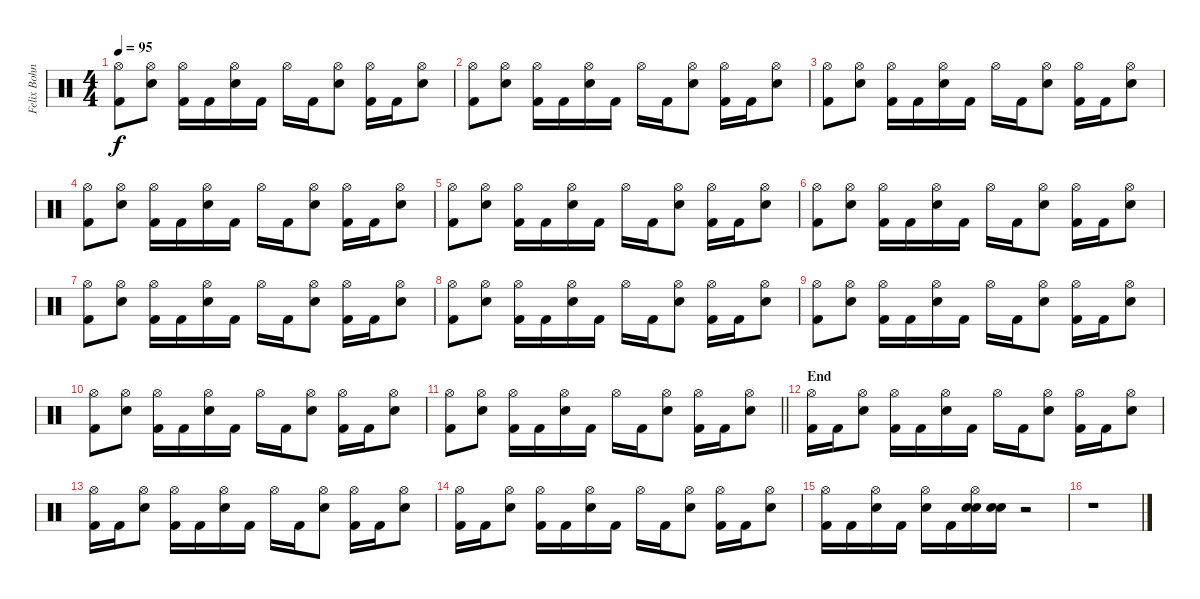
\track ("Felix Bohnke" "Felix Bohn") {instrument percussion}
\staff {score}
\articulation defaults
\ts (4 4)
\tempo 95
\clef neutral
\ks c
("Hi-Hat (open)" "Kick (hit) 2").8{dy f} ("Hi-Hat (open)" "Snare (hit) 2").8 ("Hi-Hat (open)" "Kick (hit) 2").16 "Kick (hit) 2".16 ("Hi-Hat (open)" "Snare (hit) 2").16 "Kick (hit) 2".16 "Hi-Hat (open)".16 "Kick (hit) 2".16 ("Hi-Hat (open)" "Snare (hit) 2").8 ("Hi-Hat (open)" "Kick (hit) 2").16 "Kick (hit) 2".16 ("Hi-Hat (open)" "Snare (hit) 2").8 |
("Hi-Hat (open)" "Kick (hit) 2").8 ("Hi-Hat (open)" "Snare (hit) 2").8 ("Hi-Hat (open)" "Kick (hit) 2").16 "Kick (hit) 2".16 ("Hi-Hat (open)" "Snare (hit) 2").16 "Kick (hit) 2".16 "Hi-Hat (open)".16 "Kick (hit) 2".16 ("Hi-Hat (open)" "Snare (hit) 2").8 ("Hi-Hat (open)" "Kick (hit) 2").16 "Kick (hit) 2".16 ("Hi-Hat (open)" "Snare (hit) 2").8 |
("Hi-Hat (open)" "Kick (hit) 2").8 ("Hi-Hat (open)" "Snare (hit) 2").8 ("Hi-Hat (open)" "Kick (hit) 2").16 "Kick (hit) 2".16 ("Hi-Hat (open)" "Snare (hit) 2").16 "Kick (hit) 2".16 "Hi-Hat (open)".16 "Kick (hit) 2".16 ("Hi-Hat (open)" "Snare (hit) 2").8 ("Hi-Hat (open)" "Kick (hit) 2").16 "Kick (hit) 2".16 ("Hi-Hat (open)" "Snare (hit) 2").8 |
("Hi-Hat (open)" "Kick (hit) 2").8 ("Hi-Hat (open)" "Snare (hit) 2").8 ("Hi-Hat (open)" "Kick (hit) 2").16 "Kick (hit) 2".16 ("Hi-Hat (open)" "Snare (hit) 2").16 "Kick (hit) 2".16 "Hi-Hat (open)".16 "Kick (hit) 2".16 ("Hi-Hat (open)" "Snare (hit) 2").8 ("Hi-Hat (open)" "Kick (hit) 2").16 "Kick (hit) 2".16 ("Hi-Hat (open)" "Snare (hit) 2").8 |
("Hi-Hat (open)" "Kick (hit) 2").8 ("Hi-Hat (open)" "Snare (hit) 2").8 ("Hi-Hat (open)" "Kick (hit) 2").16 "Kick (hit) 2".16 ("Hi-Hat (open)" "Snare (hit) 2").16 "Kick (hit) 2".16 "Hi-Hat (open)".16 "Kick (hit) 2".16 ("Hi-Hat (open)" "Snare (hit) 2").8 ("Hi-Hat (open)" "Kick (hit) 2").16 "Kick (hit) 2".16 ("Hi-Hat (open)" "Snare (hit) 2").8 |
("Hi-Hat (open)" "Kick (hit) 2").8 ("Hi-Hat (open)" "Snare (hit) 2").8 ("Hi-Hat (open)" "Kick (hit) 2").16 "Kick (hit) 2".16 ("Hi-Hat (open)" "Snare (hit) 2").16 "Kick (hit) 2".16 "Hi-Hat (open)".16 "Kick (hit) 2".16 ("Hi-Hat (open)" "Snare (hit) 2").8 ("Hi-Hat (open)" "Kick (hit) 2").16 "Kick (hit) 2".16 ("Hi-Hat (open)" "Snare (hit) 2").8 |
("Hi-Hat (open)" "Kick (hit) 2").8 ("Hi-Hat (open)" "Snare (hit) 2").8 ("Hi-Hat (open)" "Kick (hit) 2").16 "Kick (hit) 2".16 ("Hi-Hat (open)" "Snare (hit) 2").16 "Kick (hit) 2".16 "Hi-Hat (open)".16 "Kick (hit) 2".16 ("Hi-Hat (open)" "Snare (hit) 2").8 ("Hi-Hat (open)" "Kick (hit) 2").16 "Kick (hit) 2".16 ("Hi-Hat (open)" "Snare (hit) 2").8 |
("Hi-Hat (open)" "Kick (hit) 2").8 ("Hi-Hat (open)" "Snare (hit) 2").8 ("Hi-Hat (open)" "Kick (hit) 2").16 "Kick (hit) 2".16 ("Hi-Hat (open)" "Snare (hit) 2").16 "Kick (hit) 2".16 "Hi-Hat (open)".16 "Kick (hit) 2".16 ("Hi-Hat (open)" "Snare (hit) 2").8 ("Hi-Hat (open)" "Kick (hit) 2").16 "Kick (hit) 2".16 ("Hi-Hat (open)" "Snare (hit) 2").8 |
("Hi-Hat (open)" "Kick (hit) 2").8 ("Hi-Hat (open)" "Snare (hit) 2").8 ("Hi-Hat (open)" "Kick (hit) 2").16 "Kick (hit) 2".16 ("Hi-Hat (open)" "Snare (hit) 2").16 "Kick (hit) 2".16 "Hi-Hat (open)".16 "Kick (hit) 2".16 ("Hi-Hat (open)" "Snare (hit) 2").8 ("Hi-Hat (open)" "Kick (hit) 2").16 "Kick (hit) 2".16 ("Hi-Hat (open)" "Snare (hit) 2").8 |
("Hi-Hat (open)" "Kick (hit) 2").8 ("Hi-Hat (open)" "Snare (hit) 2").8 ("Hi-Hat (open)" "Kick (hit) 2").16 "Kick (hit) 2".16 ("Hi-Hat (open)" "Snare (hit) 2").16 "Kick (hit) 2".16 "Hi-Hat (open)".16 "Kick (hit) 2".16 ("Hi-Hat (open)" "Snare (hit) 2").8 ("Hi-Hat (open)" "Kick (hit) 2").16 "Kick (hit) 2".16 ("Hi-Hat (open)" "Snare (hit) 2").8 |
\barLineRight lightlight
("Hi-Hat (open)" "Kick (hit) 2").8 ("Hi-Hat (open)" "Snare (hit) 2").8 ("Hi-Hat (open)" "Kick (hit) 2").16 "Kick (hit) 2".16 ("Hi-Hat (open)" "Snare (hit) 2").16 "Kick (hit) 2".16 "Hi-Hat (open)".16 "Kick (hit) 2".16 ("Hi-Hat (open)" "Snare (hit) 2").8 ("Hi-Hat (open)" "Kick (hit) 2").16 "Kick (hit) 2".16 ("Hi-Hat (open)" "Snare (hit) 2").8 |
\section ("" "End")
("Kick (hit) 2" "Hi-Hat (open)").16 "Kick (hit) 2".16 ("Snare (hit) 2" "Hi-Hat (open)").8 ("Kick (hit) 2" "Hi-Hat (open)").16 "Kick (hit) 2".16 ("Snare (hit) 2" "Hi-Hat (open)").16 "Kick (hit) 2".16 "Hi-Hat (open)".16 "Kick (hit) 2".16 ("Snare (hit) 2" "Hi-Hat (open)").8 ("Kick (hit) 2" "Hi-Hat (open)").16 "Kick (hit) 2".16 ("Snare (hit) 2" "Hi-Hat (open)").8 |
("Kick (hit) 2" "Hi-Hat (open)").16 "Kick (hit) 2".16 ("Snare (hit) 2" "Hi-Hat (open)").8 ("Kick (hit) 2" "Hi-Hat (open)").16 "Kick (hit) 2".16 ("Snare (hit) 2" "Hi-Hat (open)").16 "Kick (hit) 2".16 "Hi-Hat (open)".16 "Kick (hit) 2".16 ("Snare (hit) 2" "Hi-Hat (open)").8 ("Kick (hit) 2" "Hi-Hat (open)").16 "Kick (hit) 2".16 ("Snare (hit) 2" "Hi-Hat (open)").8 |
("Kick (hit) 2" "Hi-Hat (open)").16 "Kick (hit) 2".16 ("Snare (hit) 2" "Hi-Hat (open)").8 ("Kick (hit) 2" "Hi-Hat (open)").16 "Kick (hit) 2".16 ("Snare (hit) 2" "Hi-Hat (open)").16 "Kick (hit) 2".16 "Hi-Hat (open)".16 "Kick (hit) 2".16 ("Snare (hit) 2" "Hi-Hat (open)").8 ("Kick (hit) 2" "Hi-Hat (open)").16 "Kick (hit) 2".16 ("Snare (hit) 2" "Hi-Hat (open)").8 |
("Kick (hit) 2" "Hi-Hat (open)").16 "Kick (hit) 2".16 ("Snare (hit) 2" "Hi-Hat (open)").16 "Kick (hit) 2".16 ("Snare (hit) 2" "Hi-Hat (open)").16 "Kick (hit) 2".16 ("Snare (hit) 2" "Snare (hit) 2" "Hi-Hat (open)").16{bd 60} ("Snare (hit) 2" "Snare (hit) 2").16{bd 60} r.2 |
r.1
